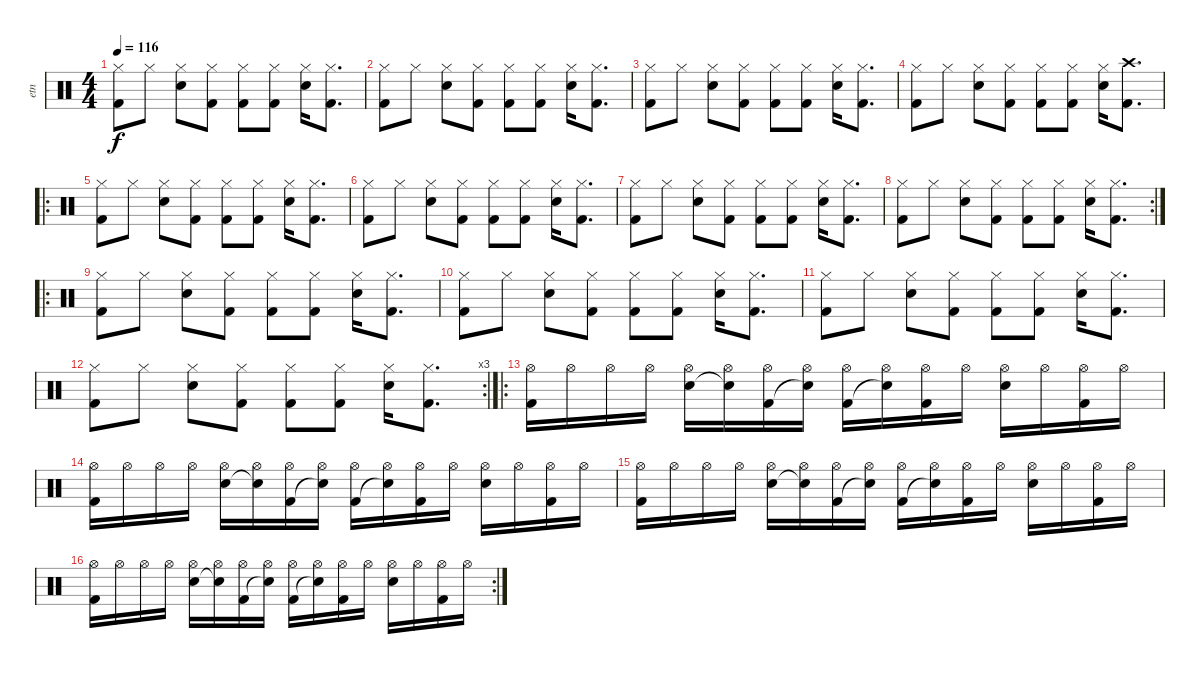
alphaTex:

\track ("etn" "etn") {instrument percussion}
\staff {score}
\articulation defaults
\ts (4 4)
\tempo 116
\clef neutral
\ks c
("Hi-Hat (closed)" "Kick (hit) 2").8{dy f} "Hi-Hat (closed)".8 ("Hi-Hat (closed)" "Snare (hit) 2").8 ("Hi-Hat (closed)" "Kick (hit) 2").8 ("Hi-Hat (closed)" "Kick (hit) 2").8 ("Hi-Hat (closed)" "Kick (hit) 2").8 ("Hi-Hat (closed)" "Snare (hit) 2").16 ("Hi-Hat (closed)" "Kick (hit) 2").8{d} |
("Hi-Hat (closed)" "Kick (hit) 2").8 "Hi-Hat (closed)".8 ("Hi-Hat (closed)" "Snare (hit) 2").8 ("Hi-Hat (closed)" "Kick (hit) 2").8 ("Hi-Hat (closed)" "Kick (hit) 2").8 ("Hi-Hat (closed)" "Kick (hit) 2").8 ("Hi-Hat (closed)" "Snare (hit) 2").16 ("Hi-Hat (closed)" "Kick (hit) 2").8{d} |
("Hi-Hat (closed)" "Kick (hit) 2").8 "Hi-Hat (closed)".8 ("Hi-Hat (closed)" "Snare (hit) 2").8 ("Hi-Hat (closed)" "Kick (hit) 2").8 ("Hi-Hat (closed)" "Kick (hit) 2").8 ("Hi-Hat (closed)" "Kick (hit) 2").8 ("Hi-Hat (closed)" "Snare (hit) 2").16 ("Hi-Hat (closed)" "Kick (hit) 2").8{d} |
("Hi-Hat (closed)" "Kick (hit) 2").8 "Hi-Hat (closed)".8 ("Hi-Hat (closed)" "Snare (hit) 2").8 ("Hi-Hat (closed)" "Kick (hit) 2").8 ("Hi-Hat (closed)" "Kick (hit) 2").8 ("Hi-Hat (closed)" "Kick (hit) 2").8 ("Hi-Hat (closed)" "Snare (hit) 2").16 ("Crash high (hit)" "Kick (hit) 2").8{d} |
\ro
("Hi-Hat (closed)" "Kick (hit) 2").8 "Hi-Hat (closed)".8 ("Hi-Hat (closed)" "Snare (hit) 2").8 ("Hi-Hat (closed)" "Kick (hit) 2").8 ("Hi-Hat (closed)" "Kick (hit) 2").8 ("Hi-Hat (closed)" "Kick (hit) 2").8 ("Hi-Hat (closed)" "Snare (hit) 2").16 ("Hi-Hat (closed)" "Kick (hit) 2").8{d} |
("Hi-Hat (closed)" "Kick (hit) 2").8 "Hi-Hat (closed)".8 ("Hi-Hat (closed)" "Snare (hit) 2").8 ("Hi-Hat (closed)" "Kick (hit) 2").8 ("Hi-Hat (closed)" "Kick (hit) 2").8 ("Hi-Hat (closed)" "Kick (hit) 2").8 ("Hi-Hat (closed)" "Snare (hit) 2").16 ("Hi-Hat (closed)" "Kick (hit) 2").8{d} |
("Hi-Hat (closed)" "Kick (hit) 2").8 "Hi-Hat (closed)".8 ("Hi-Hat (closed)" "Snare (hit) 2").8 ("Hi-Hat (closed)" "Kick (hit) 2").8 ("Hi-Hat (closed)" "Kick (hit) 2").8 ("Hi-Hat (closed)" "Kick (hit) 2").8 ("Hi-Hat (closed)" "Snare (hit) 2").16 ("Hi-Hat (closed)" "Kick (hit) 2").8{d} |
\rc 2
("Hi-Hat (closed)" "Kick (hit) 2").8 "Hi-Hat (closed)".8 ("Hi-Hat (closed)" "Snare (hit) 2").8 ("Hi-Hat (closed)" "Kick (hit) 2").8 ("Hi-Hat (closed)" "Kick (hit) 2").8 ("Hi-Hat (closed)" "Kick (hit) 2").8 ("Hi-Hat (closed)" "Snare (hit) 2").16 ("Hi-Hat (closed)" "Kick (hit) 2").8{d} |
\ro
("Hi-Hat (closed)" "Kick (hit) 2").8 "Hi-Hat (closed)".8 ("Hi-Hat (closed)" "Snare (hit) 2").8 ("Hi-Hat (closed)" "Kick (hit) 2").8 ("Hi-Hat (closed)" "Kick (hit) 2").8 ("Hi-Hat (closed)" "Kick (hit) 2").8 ("Hi-Hat (closed)" "Snare (hit) 2").16 ("Hi-Hat (closed)" "Kick (hit) 2").8{d} |
("Hi-Hat (closed)" "Kick (hit) 2").8 "Hi-Hat (closed)".8 ("Hi-Hat (closed)" "Snare (hit) 2").8 ("Hi-Hat (closed)" "Kick (hit) 2").8 ("Hi-Hat (closed)" "Kick (hit) 2").8 ("Hi-Hat (closed)" "Kick (hit) 2").8 ("Hi-Hat (closed)" "Snare (hit) 2").16 ("Hi-Hat (closed)" "Kick (hit) 2").8{d} |
("Hi-Hat (closed)" "Kick (hit) 2").8 "Hi-Hat (closed)".8 ("Hi-Hat (closed)" "Snare (hit) 2").8 ("Hi-Hat (closed)" "Kick (hit) 2").8 ("Hi-Hat (closed)" "Kick (hit) 2").8 ("Hi-Hat (closed)" "Kick (hit) 2").8 ("Hi-Hat (closed)" "Snare (hit) 2").16 ("Hi-Hat (closed)" "Kick (hit) 2").8{d} |
\rc 3
("Hi-Hat (closed)" "Kick (hit) 2").8 "Hi-Hat (closed)".8 ("Hi-Hat (closed)" "Snare (hit) 2").8 ("Hi-Hat (closed)" "Kick (hit) 2").8 ("Hi-Hat (closed)" "Kick (hit) 2").8 ("Hi-Hat (closed)" "Kick (hit) 2").8 ("Hi-Hat (closed)" "Snare (hit) 2").16 ("Hi-Hat (closed)" "Kick (hit) 2").8{d} |
\ro
("Hi-Hat (open)" "Kick (hit) 2").16 "Hi-Hat (open)".16 "Hi-Hat (open)".16 "Hi-Hat (open)".16 ("Hi-Hat (open)" "Snare (hit) 2").16 ("Hi-Hat (open)" "Snare (hit)"{t}).16 ("Hi-Hat (open)" "Kick (hit) 2").16 ("Hi-Hat (open)" "Snare (hit)"{t}).16 ("Hi-Hat (open)" "Kick (hit) 2").16 ("Hi-Hat (open)" "Snare (hit)"{t}).16 ("Hi-Hat (open)" "Kick (hit) 2").16 "Hi-Hat (open)".16 ("Hi-Hat (open)" "Snare (hit) 2").16 "Hi-Hat (open)".16 ("Hi-Hat (open)" "Kick (hit) 2").16 "Hi-Hat (open)".16 |
("Hi-Hat (open)" "Kick (hit) 2").16 "Hi-Hat (open)".16 "Hi-Hat (open)".16 "Hi-Hat (open)".16 ("Hi-Hat (open)" "Snare (hit) 2").16 ("Hi-Hat (open)" "Snare (hit)"{t}).16 ("Hi-Hat (open)" "Kick (hit) 2").16 ("Hi-Hat (open)" "Snare (hit)"{t}).16 ("Hi-Hat (open)" "Kick (hit) 2").16 ("Hi-Hat (open)" "Snare (hit)"{t}).16 ("Hi-Hat (open)" "Kick (hit) 2").16 "Hi-Hat (open)".16 ("Hi-Hat (open)" "Snare (hit) 2").16 "Hi-Hat (open)".16 ("Hi-Hat (open)" "Kick (hit) 2").16 "Hi-Hat (open)".16 |
("Hi-Hat (open)" "Kick (hit) 2").16 "Hi-Hat (open)".16 "Hi-Hat (open)".16 "Hi-Hat (open)".16 ("Hi-Hat (open)" "Snare (hit) 2").16 ("Hi-Hat (open)" "Snare (hit)"{t}).16 ("Hi-Hat (open)" "Kick (hit) 2").16 ("Hi-Hat (open)" "Snare (hit)"{t}).16 ("Hi-Hat (open)" "Kick (hit) 2").16 ("Hi-Hat (open)" "Snare (hit)"{t}).16 ("Hi-Hat (open)" "Kick (hit) 2").16 "Hi-Hat (open)".16 ("Hi-Hat (open)" "Snare (hit) 2").16 "Hi-Hat (open)".16 ("Hi-Hat (open)" "Kick (hit) 2").16 "Hi-Hat (open)".16 |
\rc 2
("Hi-Hat (open)" "Kick (hit) 2").16 "Hi-Hat (open)".16 "Hi-Hat (open)".16 "Hi-Hat (open)".16 ("Hi-Hat (open)" "Snare (hit) 2").16 ("Hi-Hat (open)" "Snare (hit)"{t}).16 ("Hi-Hat (open)" "Kick (hit) 2").16 ("Hi-Hat (open)" "Snare (hit)"{t}).16 ("Hi-Hat (open)" "Kick (hit) 2").16 ("Hi-Hat (open)" "Snare (hit)"{t}).16 ("Hi-Hat (open)" "Kick (hit) 2").16 "Hi-Hat (open)".16 ("Hi-Hat (open)" "Snare (hit) 2").16 "Hi-Hat (open)".16 ("Hi-Hat (open)" "Kick (hit) 2").16 "Hi-Hat (open)".16
